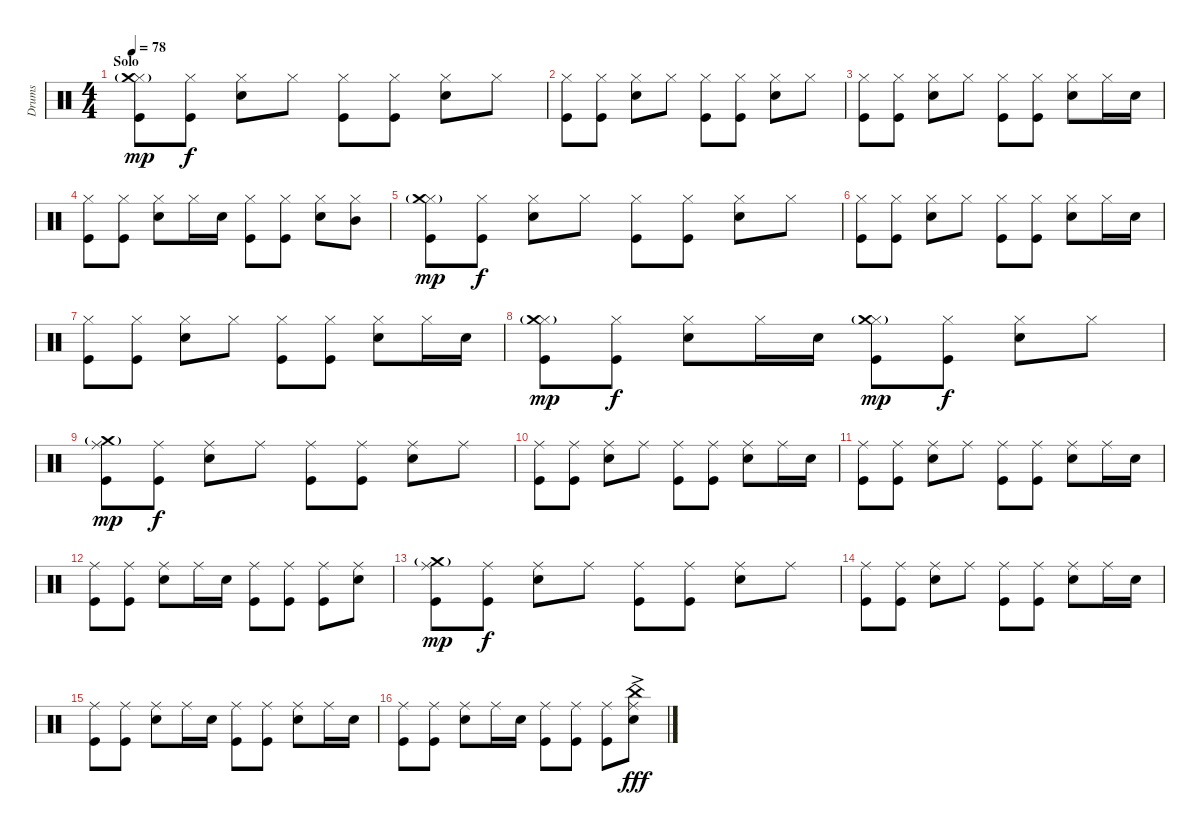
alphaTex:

\track ("Drums" "Drums") {instrument percussion}
\staff {score}
\articulation defaults
\ts (4 4)
\section ("" "Solo")
\tempo 78
\clef neutral
\ks c
("Hi-Hat (closed)" "Crash medium (hit)"{g} "Kick (hit)").8{dy mp} ("Hi-Hat (closed)" "Kick (hit)").8{dy f} ("Hi-Hat (closed)" "Snare (hit) 2").8 "Hi-Hat (closed)".8 ("Hi-Hat (closed)" "Kick (hit)").8 ("Hi-Hat (closed)" "Kick (hit)").8 ("Hi-Hat (closed)" "Snare (hit) 2").8 "Hi-Hat (closed)".8 |
("Hi-Hat (closed)" "Kick (hit)").8 ("Hi-Hat (closed)" "Kick (hit)").8 ("Hi-Hat (closed)" "Snare (hit) 2").8 "Hi-Hat (closed)".8 ("Hi-Hat (closed)" "Kick (hit)").8 ("Hi-Hat (closed)" "Kick (hit)").8 ("Hi-Hat (closed)" "Snare (hit) 2").8 "Hi-Hat (closed)".8 |
("Hi-Hat (closed)" "Kick (hit)").8 ("Hi-Hat (closed)" "Kick (hit)").8 ("Hi-Hat (closed)" "Snare (hit) 2").8 "Hi-Hat (closed)".8 ("Hi-Hat (closed)" "Kick (hit)").8 ("Hi-Hat (closed)" "Kick (hit)").8 ("Hi-Hat (closed)" "Snare (hit) 2").8 "Hi-Hat (closed)".16 "Snare (hit) 2".16 |
("Hi-Hat (closed)" "Kick (hit)").8 ("Hi-Hat (closed)" "Kick (hit)").8 ("Hi-Hat (closed)" "Snare (hit) 2").8 "Hi-Hat (closed)".16 "Snare (hit) 2".16 ("Hi-Hat (closed)" "Kick (hit)").8 ("Hi-Hat (closed)" "Kick (hit)").8 ("Hi-Hat (closed)" "Snare (hit) 2").8 ("Hi-Hat (closed)" "Mid Tom (hit)").8 |
("Hi-Hat (closed)" "Crash medium (hit)"{g} "Kick (hit)").8{dy mp} ("Hi-Hat (closed)" "Kick (hit)").8{dy f} ("Hi-Hat (closed)" "Snare (hit) 2").8 "Hi-Hat (closed)".8 ("Hi-Hat (closed)" "Kick (hit)").8 ("Hi-Hat (closed)" "Kick (hit)").8 ("Hi-Hat (closed)" "Snare (hit) 2").8 "Hi-Hat (closed)".8 |
("Hi-Hat (closed)" "Kick (hit)").8 ("Hi-Hat (closed)" "Kick (hit)").8 ("Hi-Hat (closed)" "Snare (hit) 2").8 "Hi-Hat (closed)".8 ("Hi-Hat (closed)" "Kick (hit)").8 ("Hi-Hat (closed)" "Kick (hit)").8 ("Hi-Hat (closed)" "Snare (hit) 2").8 "Hi-Hat (closed)".16 "Snare (hit) 2".16 |
("Hi-Hat (closed)" "Kick (hit)").8 ("Hi-Hat (closed)" "Kick (hit)").8 ("Hi-Hat (closed)" "Snare (hit) 2").8 "Hi-Hat (closed)".8 ("Hi-Hat (closed)" "Kick (hit)").8 ("Hi-Hat (closed)" "Kick (hit)").8 ("Hi-Hat (closed)" "Snare (hit) 2").8 "Hi-Hat (closed)".16 "Snare (hit) 2".16 |
("Hi-Hat (closed)" "Crash medium (hit)"{g} "Kick (hit)").8{dy mp} ("Hi-Hat (closed)" "Kick (hit)").8{dy f} ("Hi-Hat (closed)" "Snare (hit) 2").8 "Hi-Hat (closed)".16 "Snare (hit) 2".16 ("Hi-Hat (closed)" "Crash medium (hit)"{g} "Kick (hit)").8{dy mp} ("Hi-Hat (closed)" "Kick (hit)").8{dy f} ("Hi-Hat (closed)" "Snare (hit) 2").8 "Hi-Hat (closed)".8 |
("Ride (middle)" "Crash medium (hit)"{g} "Kick (hit)").8{dy mp} ("Ride (middle)" "Kick (hit)").8{dy f} ("Ride (middle)" "Snare (hit) 2").8 "Ride (middle)".8 ("Ride (middle)" "Kick (hit)").8 ("Ride (middle)" "Kick (hit)").8 ("Ride (middle)" "Snare (hit) 2").8 "Ride (middle)".8 |
("Ride (middle)" "Kick (hit)").8 ("Ride (middle)" "Kick (hit)").8 ("Ride (middle)" "Snare (hit) 2").8 "Ride (middle)".8 ("Ride (middle)" "Kick (hit)").8 ("Ride (middle)" "Kick (hit)").8 ("Ride (middle)" "Snare (hit) 2").8 "Ride (middle)".16 "Snare (hit) 2".16 |
("Ride (middle)" "Kick (hit)").8 ("Ride (middle)" "Kick (hit)").8 ("Ride (middle)" "Snare (hit) 2").8 "Ride (middle)".8 ("Ride (middle)" "Kick (hit)").8 ("Ride (middle)" "Kick (hit)").8 ("Ride (middle)" "Snare (hit) 2").8 "Ride (middle)".16 "Snare (hit) 2".16 |
("Ride (middle)" "Kick (hit)").8 ("Ride (middle)" "Kick (hit)").8 ("Ride (middle)" "Snare (hit) 2").8 "Ride (middle)".16 "Snare (hit) 2".16 ("Ride (middle)" "Kick (hit)").8 ("Ride (middle)" "Kick (hit)").8 ("Ride (middle)" "Kick (hit)").8 ("Ride (middle)" "Snare (hit) 2").8 |
("Ride (middle)" "Crash medium (hit)"{g} "Kick (hit)").8{dy mp} ("Ride (middle)" "Kick (hit)").8{dy f} ("Ride (middle)" "Snare (hit) 2").8 "Ride (middle)".8 ("Ride (middle)" "Kick (hit)").8 ("Ride (middle)" "Kick (hit)").8 ("Ride (middle)" "Snare (hit) 2").8 "Ride (middle)".8 |
("Ride (middle)" "Kick (hit)").8 ("Ride (middle)" "Kick (hit)").8 ("Ride (middle)" "Snare (hit) 2").8 "Ride (middle)".8 ("Ride (middle)" "Kick (hit)").8 ("Ride (middle)" "Kick (hit)").8 ("Ride (middle)" "Snare (hit) 2").8 "Ride (middle)".16 "Snare (hit) 2".16 |
("Ride (middle)" "Kick (hit)").8 ("Ride (middle)" "Kick (hit)").8 ("Ride (middle)" "Snare (hit) 2").8 "Ride (middle)".16 "Snare (hit) 2".16 ("Ride (middle)" "Kick (hit)").8 ("Ride (middle)" "Kick (hit)").8 ("Ride (middle)" "Snare (hit) 2").8 "Ride (middle)".16 "Snare (hit) 2".16 |
("Ride (middle)" "Kick (hit)").8 ("Ride (middle)" "Kick (hit)").8 ("Ride (middle)" "Snare (hit) 2").8 "Ride (middle)".16 "Snare (hit) 2".16 ("Ride (middle)" "Kick (hit)").8 ("Ride (middle)" "Kick (hit)").8 ("Ride (middle)" "Kick (hit)").8 ("Ride (middle)" "China (hit)"{ac} "Snare (hit) 2").8{dy fff}
